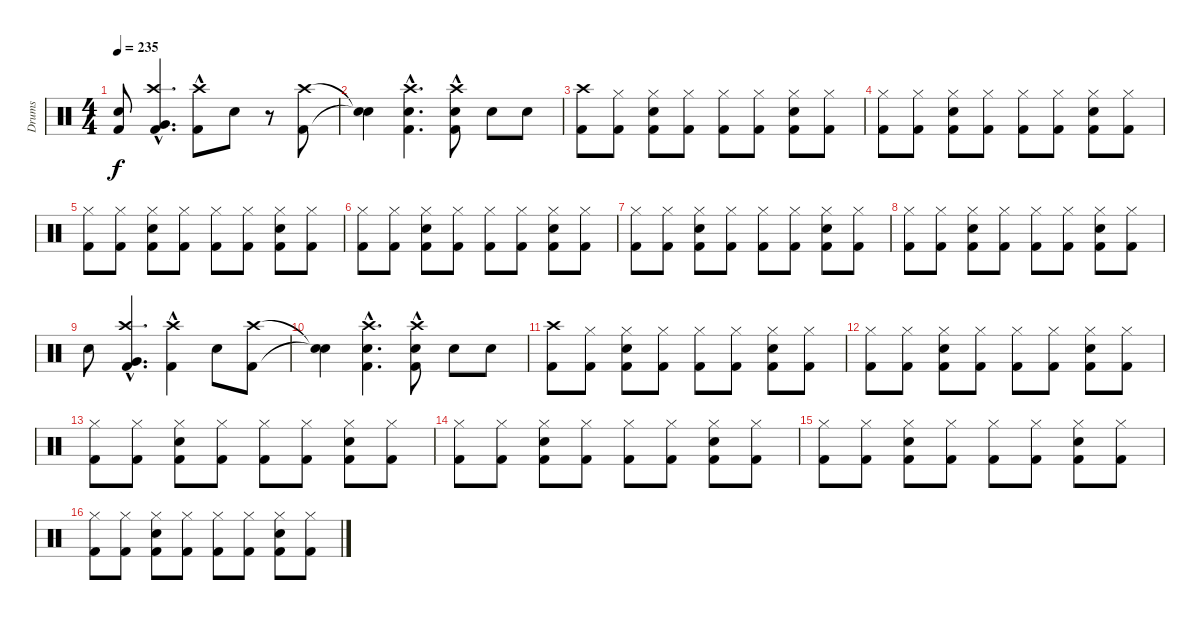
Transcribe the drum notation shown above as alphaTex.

\track ("Drums" "Drums") {instrument percussion}
\staff {score}
\articulation defaults
\ts (4 4)
\tempo 235
\clef neutral
\ks c
("Snare (hit) 2" "Kick (hit) 2").8{dy f} ("Kick (hit) 2"{hac} "Crash high (hit)"{hac} "Very Low Tom (hit)").4{d} ("Kick (hit) 2"{hac} "Crash high (hit)"{hac}).8 "Snare (hit) 2".8 r.8 ("Kick (hit) 2" "Crash high (hit)").8 |
("Snare (hit)"{t} "Snare (hit)"{t}).4 ("Kick (hit) 2"{hac} "Crash high (hit)"{hac} "Snare (hit) 2").4{d} ("Kick (hit) 2"{hac} "Crash high (hit)"{hac} "Snare (hit) 2").8 "Snare (hit) 2".8 "Snare (hit) 2".8 |
("Kick (hit) 2" "Crash high (hit)").8 ("Kick (hit) 2" "Hi-Hat (closed)").8 ("Kick (hit) 2" "Snare (hit) 2" "Hi-Hat (closed)").8 ("Kick (hit) 2" "Hi-Hat (closed)").8 ("Kick (hit) 2" "Hi-Hat (closed)").8 ("Kick (hit) 2" "Hi-Hat (closed)").8 ("Kick (hit) 2" "Hi-Hat (closed)" "Snare (hit) 2").8 ("Kick (hit) 2" "Hi-Hat (closed)").8 |
("Kick (hit) 2" "Hi-Hat (closed)").8 ("Kick (hit) 2" "Hi-Hat (closed)").8 ("Kick (hit) 2" "Snare (hit) 2" "Hi-Hat (closed)").8 ("Kick (hit) 2" "Hi-Hat (closed)").8 ("Kick (hit) 2" "Hi-Hat (closed)").8 ("Kick (hit) 2" "Hi-Hat (closed)").8 ("Kick (hit) 2" "Hi-Hat (closed)" "Snare (hit) 2").8 ("Kick (hit) 2" "Hi-Hat (closed)").8 |
("Kick (hit) 2" "Hi-Hat (closed)").8 ("Kick (hit) 2" "Hi-Hat (closed)").8 ("Kick (hit) 2" "Snare (hit) 2" "Hi-Hat (closed)").8 ("Kick (hit) 2" "Hi-Hat (closed)").8 ("Kick (hit) 2" "Hi-Hat (closed)").8 ("Kick (hit) 2" "Hi-Hat (closed)").8 ("Kick (hit) 2" "Hi-Hat (closed)" "Snare (hit) 2").8 ("Kick (hit) 2" "Hi-Hat (closed)").8 |
("Kick (hit) 2" "Hi-Hat (closed)").8 ("Kick (hit) 2" "Hi-Hat (closed)").8 ("Kick (hit) 2" "Snare (hit) 2" "Hi-Hat (closed)").8 ("Kick (hit) 2" "Hi-Hat (closed)").8 ("Kick (hit) 2" "Hi-Hat (closed)").8 ("Kick (hit) 2" "Hi-Hat (closed)").8 ("Kick (hit) 2" "Hi-Hat (closed)" "Snare (hit) 2").8 ("Kick (hit) 2" "Hi-Hat (closed)").8 |
("Kick (hit) 2" "Hi-Hat (closed)").8 ("Kick (hit) 2" "Hi-Hat (closed)").8 ("Kick (hit) 2" "Snare (hit) 2" "Hi-Hat (closed)").8 ("Kick (hit) 2" "Hi-Hat (closed)").8 ("Kick (hit) 2" "Hi-Hat (closed)").8 ("Kick (hit) 2" "Hi-Hat (closed)").8 ("Kick (hit) 2" "Hi-Hat (closed)" "Snare (hit) 2").8 ("Kick (hit) 2" "Hi-Hat (closed)").8 |
("Kick (hit) 2" "Hi-Hat (closed)").8 ("Kick (hit) 2" "Hi-Hat (closed)").8 ("Kick (hit) 2" "Snare (hit) 2" "Hi-Hat (closed)").8 ("Kick (hit) 2" "Hi-Hat (closed)").8 ("Kick (hit) 2" "Hi-Hat (closed)").8 ("Kick (hit) 2" "Hi-Hat (closed)").8 ("Kick (hit) 2" "Hi-Hat (closed)" "Snare (hit) 2").8 ("Kick (hit) 2" "Hi-Hat (closed)").8 |
"Snare (hit) 2".8 ("Kick (hit) 2"{hac} "Crash high (hit)"{hac} "Very Low Tom (hit)").4{d} ("Kick (hit) 2"{hac} "Crash high (hit)"{hac}).4 "Snare (hit) 2".8 ("Kick (hit) 2" "Crash high (hit)").8 |
("Snare (hit)"{t} "Snare (hit)"{t}).4 ("Kick (hit) 2"{hac} "Crash high (hit)"{hac} "Snare (hit) 2").4{d} ("Kick (hit) 2"{hac} "Crash high (hit)"{hac} "Snare (hit) 2").8 "Snare (hit) 2".8 "Snare (hit) 2".8 |
("Kick (hit) 2" "Crash high (hit)").8 ("Kick (hit) 2" "Hi-Hat (closed)").8 ("Kick (hit) 2" "Snare (hit) 2" "Hi-Hat (closed)").8 ("Kick (hit) 2" "Hi-Hat (closed)").8 ("Kick (hit) 2" "Hi-Hat (closed)").8 ("Kick (hit) 2" "Hi-Hat (closed)").8 ("Kick (hit) 2" "Hi-Hat (closed)" "Snare (hit) 2").8 ("Kick (hit) 2" "Hi-Hat (closed)").8 |
("Kick (hit) 2" "Hi-Hat (closed)").8 ("Kick (hit) 2" "Hi-Hat (closed)").8 ("Kick (hit) 2" "Snare (hit) 2" "Hi-Hat (closed)").8 ("Kick (hit) 2" "Hi-Hat (closed)").8 ("Kick (hit) 2" "Hi-Hat (closed)").8 ("Kick (hit) 2" "Hi-Hat (closed)").8 ("Kick (hit) 2" "Hi-Hat (closed)" "Snare (hit) 2").8 ("Kick (hit) 2" "Hi-Hat (closed)").8 |
("Kick (hit) 2" "Hi-Hat (closed)").8 ("Kick (hit) 2" "Hi-Hat (closed)").8 ("Kick (hit) 2" "Snare (hit) 2" "Hi-Hat (closed)").8 ("Kick (hit) 2" "Hi-Hat (closed)").8 ("Kick (hit) 2" "Hi-Hat (closed)").8 ("Kick (hit) 2" "Hi-Hat (closed)").8 ("Kick (hit) 2" "Hi-Hat (closed)" "Snare (hit) 2").8 ("Kick (hit) 2" "Hi-Hat (closed)").8 |
("Kick (hit) 2" "Hi-Hat (closed)").8 ("Kick (hit) 2" "Hi-Hat (closed)").8 ("Kick (hit) 2" "Snare (hit) 2" "Hi-Hat (closed)").8 ("Kick (hit) 2" "Hi-Hat (closed)").8 ("Kick (hit) 2" "Hi-Hat (closed)").8 ("Kick (hit) 2" "Hi-Hat (closed)").8 ("Kick (hit) 2" "Hi-Hat (closed)" "Snare (hit) 2").8 ("Kick (hit) 2" "Hi-Hat (closed)").8 |
("Kick (hit) 2" "Hi-Hat (closed)").8 ("Kick (hit) 2" "Hi-Hat (closed)").8 ("Kick (hit) 2" "Snare (hit) 2" "Hi-Hat (closed)").8 ("Kick (hit) 2" "Hi-Hat (closed)").8 ("Kick (hit) 2" "Hi-Hat (closed)").8 ("Kick (hit) 2" "Hi-Hat (closed)").8 ("Kick (hit) 2" "Hi-Hat (closed)" "Snare (hit) 2").8 ("Kick (hit) 2" "Hi-Hat (closed)").8 |
("Kick (hit) 2" "Hi-Hat (closed)").8 ("Kick (hit) 2" "Hi-Hat (closed)").8 ("Kick (hit) 2" "Snare (hit) 2" "Hi-Hat (closed)").8 ("Kick (hit) 2" "Hi-Hat (closed)").8 ("Kick (hit) 2" "Hi-Hat (closed)").8 ("Kick (hit) 2" "Hi-Hat (closed)").8 ("Kick (hit) 2" "Hi-Hat (closed)" "Snare (hit) 2").8 ("Kick (hit) 2" "Hi-Hat (closed)").8
